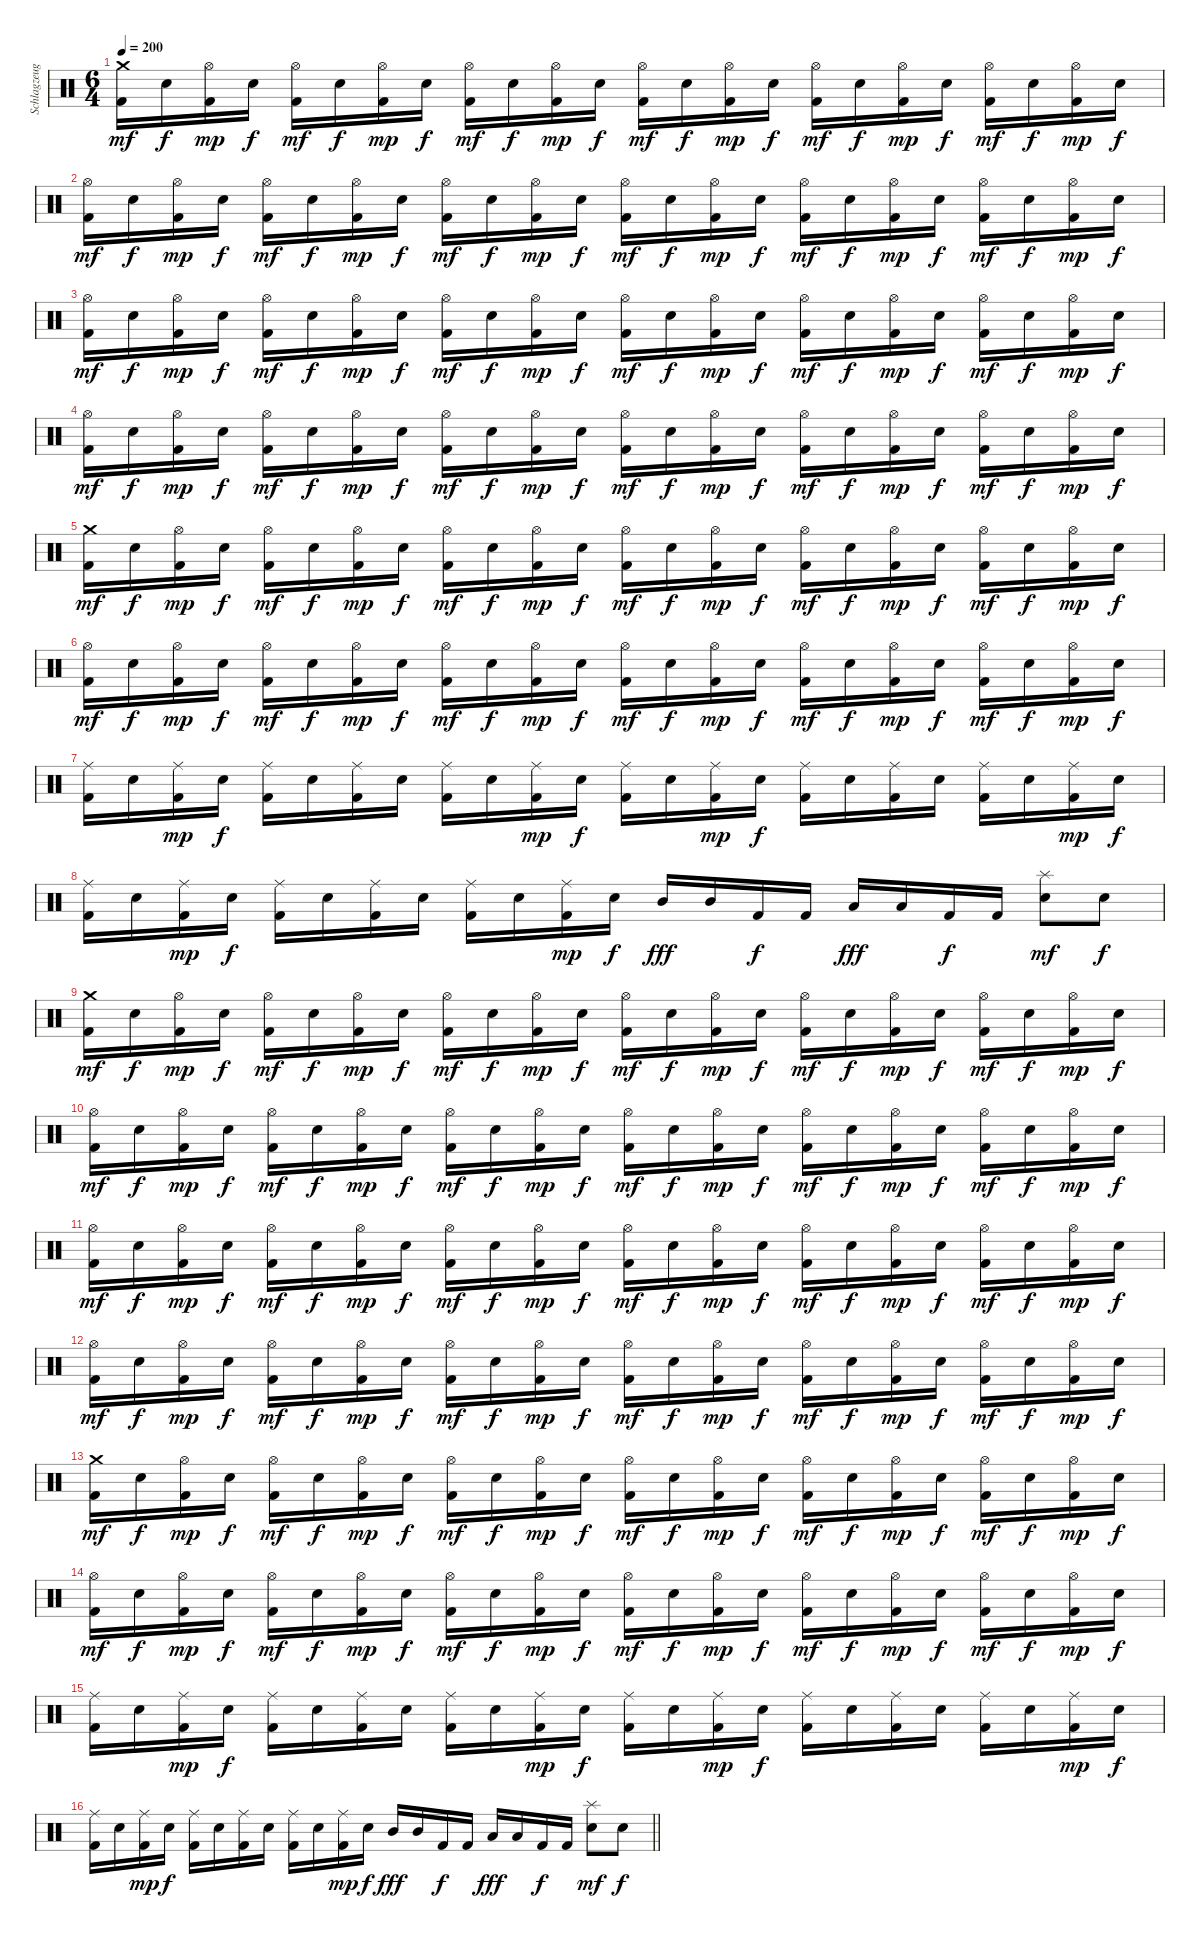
\track ("Schlagzeug" "Schlagzeug") {instrument percussion}
\staff {score}
\articulation defaults
\ts (6 4)
\tempo 200
\clef neutral
\ks c
("Crash medium (hit)" "Kick (hit) 2").16{dy mf} "Electric Snare (hit)".16{dy f} ("Hi-Hat (open)" "Kick (hit) 2").16{dy mp} "Electric Snare (hit)".16{dy f} ("Hi-Hat (open)" "Kick (hit) 2").16{dy mf} "Electric Snare (hit)".16{dy f} ("Hi-Hat (open)" "Kick (hit) 2").16{dy mp} "Electric Snare (hit)".16{dy f} ("Hi-Hat (open)" "Kick (hit) 2").16{dy mf} "Electric Snare (hit)".16{dy f} ("Hi-Hat (open)" "Kick (hit) 2").16{dy mp} "Electric Snare (hit)".16{dy f} ("Hi-Hat (open)" "Kick (hit) 2").16{dy mf} "Electric Snare (hit)".16{dy f} ("Hi-Hat (open)" "Kick (hit) 2").16{dy mp} "Electric Snare (hit)".16{dy f} ("Hi-Hat (open)" "Kick (hit) 2").16{dy mf} "Electric Snare (hit)".16{dy f} ("Hi-Hat (open)" "Kick (hit) 2").16{dy mp} "Electric Snare (hit)".16{dy f} ("Hi-Hat (open)" "Kick (hit) 2").16{dy mf} "Electric Snare (hit)".16{dy f} ("Hi-Hat (open)" "Kick (hit) 2").16{dy mp} "Electric Snare (hit)".16{dy f} |
("Hi-Hat (open)" "Kick (hit) 2").16{dy mf} "Electric Snare (hit)".16{dy f} ("Hi-Hat (open)" "Kick (hit) 2").16{dy mp} "Electric Snare (hit)".16{dy f} ("Hi-Hat (open)" "Kick (hit) 2").16{dy mf} "Electric Snare (hit)".16{dy f} ("Hi-Hat (open)" "Kick (hit) 2").16{dy mp} "Electric Snare (hit)".16{dy f} ("Hi-Hat (open)" "Kick (hit) 2").16{dy mf} "Electric Snare (hit)".16{dy f} ("Hi-Hat (open)" "Kick (hit) 2").16{dy mp} "Electric Snare (hit)".16{dy f} ("Hi-Hat (open)" "Kick (hit) 2").16{dy mf} "Electric Snare (hit)".16{dy f} ("Hi-Hat (open)" "Kick (hit) 2").16{dy mp} "Electric Snare (hit)".16{dy f} ("Hi-Hat (open)" "Kick (hit) 2").16{dy mf} "Electric Snare (hit)".16{dy f} ("Hi-Hat (open)" "Kick (hit) 2").16{dy mp} "Electric Snare (hit)".16{dy f} ("Hi-Hat (open)" "Kick (hit) 2").16{dy mf} "Electric Snare (hit)".16{dy f} ("Hi-Hat (open)" "Kick (hit) 2").16{dy mp} "Electric Snare (hit)".16{dy f} |
("Hi-Hat (open)" "Kick (hit) 2").16{dy mf} "Electric Snare (hit)".16{dy f} ("Hi-Hat (open)" "Kick (hit) 2").16{dy mp} "Electric Snare (hit)".16{dy f} ("Hi-Hat (open)" "Kick (hit) 2").16{dy mf} "Electric Snare (hit)".16{dy f} ("Hi-Hat (open)" "Kick (hit) 2").16{dy mp} "Electric Snare (hit)".16{dy f} ("Hi-Hat (open)" "Kick (hit) 2").16{dy mf} "Electric Snare (hit)".16{dy f} ("Hi-Hat (open)" "Kick (hit) 2").16{dy mp} "Electric Snare (hit)".16{dy f} ("Hi-Hat (open)" "Kick (hit) 2").16{dy mf} "Electric Snare (hit)".16{dy f} ("Hi-Hat (open)" "Kick (hit) 2").16{dy mp} "Electric Snare (hit)".16{dy f} ("Hi-Hat (open)" "Kick (hit) 2").16{dy mf} "Electric Snare (hit)".16{dy f} ("Hi-Hat (open)" "Kick (hit) 2").16{dy mp} "Electric Snare (hit)".16{dy f} ("Hi-Hat (open)" "Kick (hit) 2").16{dy mf} "Electric Snare (hit)".16{dy f} ("Hi-Hat (open)" "Kick (hit) 2").16{dy mp} "Electric Snare (hit)".16{dy f} |
("Hi-Hat (open)" "Kick (hit) 2").16{dy mf} "Electric Snare (hit)".16{dy f} ("Hi-Hat (open)" "Kick (hit) 2").16{dy mp} "Electric Snare (hit)".16{dy f} ("Hi-Hat (open)" "Kick (hit) 2").16{dy mf} "Electric Snare (hit)".16{dy f} ("Hi-Hat (open)" "Kick (hit) 2").16{dy mp} "Electric Snare (hit)".16{dy f} ("Hi-Hat (open)" "Kick (hit) 2").16{dy mf} "Electric Snare (hit)".16{dy f} ("Hi-Hat (open)" "Kick (hit) 2").16{dy mp} "Electric Snare (hit)".16{dy f} ("Hi-Hat (open)" "Kick (hit) 2").16{dy mf} "Electric Snare (hit)".16{dy f} ("Hi-Hat (open)" "Kick (hit) 2").16{dy mp} "Electric Snare (hit)".16{dy f} ("Hi-Hat (open)" "Kick (hit) 2").16{dy mf} "Electric Snare (hit)".16{dy f} ("Hi-Hat (open)" "Kick (hit) 2").16{dy mp} "Electric Snare (hit)".16{dy f} ("Hi-Hat (open)" "Kick (hit) 2").16{dy mf} "Electric Snare (hit)".16{dy f} ("Hi-Hat (open)" "Kick (hit) 2").16{dy mp} "Electric Snare (hit)".16{dy f} |
("Crash medium (hit)" "Kick (hit) 2").16{dy mf} "Electric Snare (hit)".16{dy f} ("Hi-Hat (open)" "Kick (hit) 2").16{dy mp} "Electric Snare (hit)".16{dy f} ("Hi-Hat (open)" "Kick (hit) 2").16{dy mf} "Electric Snare (hit)".16{dy f} ("Hi-Hat (open)" "Kick (hit) 2").16{dy mp} "Electric Snare (hit)".16{dy f} ("Hi-Hat (open)" "Kick (hit) 2").16{dy mf} "Electric Snare (hit)".16{dy f} ("Hi-Hat (open)" "Kick (hit) 2").16{dy mp} "Electric Snare (hit)".16{dy f} ("Hi-Hat (open)" "Kick (hit) 2").16{dy mf} "Electric Snare (hit)".16{dy f} ("Hi-Hat (open)" "Kick (hit) 2").16{dy mp} "Electric Snare (hit)".16{dy f} ("Hi-Hat (open)" "Kick (hit) 2").16{dy mf} "Electric Snare (hit)".16{dy f} ("Hi-Hat (open)" "Kick (hit) 2").16{dy mp} "Electric Snare (hit)".16{dy f} ("Hi-Hat (open)" "Kick (hit) 2").16{dy mf} "Electric Snare (hit)".16{dy f} ("Hi-Hat (open)" "Kick (hit) 2").16{dy mp} "Electric Snare (hit)".16{dy f} |
("Hi-Hat (open)" "Kick (hit) 2").16{dy mf} "Electric Snare (hit)".16{dy f} ("Hi-Hat (open)" "Kick (hit) 2").16{dy mp} "Electric Snare (hit)".16{dy f} ("Hi-Hat (open)" "Kick (hit) 2").16{dy mf} "Electric Snare (hit)".16{dy f} ("Hi-Hat (open)" "Kick (hit) 2").16{dy mp} "Electric Snare (hit)".16{dy f} ("Hi-Hat (open)" "Kick (hit) 2").16{dy mf} "Electric Snare (hit)".16{dy f} ("Hi-Hat (open)" "Kick (hit) 2").16{dy mp} "Electric Snare (hit)".16{dy f} ("Hi-Hat (open)" "Kick (hit) 2").16{dy mf} "Electric Snare (hit)".16{dy f} ("Hi-Hat (open)" "Kick (hit) 2").16{dy mp} "Electric Snare (hit)".16{dy f} ("Hi-Hat (open)" "Kick (hit) 2").16{dy mf} "Electric Snare (hit)".16{dy f} ("Hi-Hat (open)" "Kick (hit) 2").16{dy mp} "Electric Snare (hit)".16{dy f} ("Hi-Hat (open)" "Kick (hit) 2").16{dy mf} "Electric Snare (hit)".16{dy f} ("Hi-Hat (open)" "Kick (hit) 2").16{dy mp} "Electric Snare (hit)".16{dy f} |
("Ride (middle)" "Kick (hit) 2").16 "Electric Snare (hit)".16 ("Ride (middle)" "Kick (hit) 2").16{dy mp} "Electric Snare (hit)".16{dy f} ("Ride (middle)" "Kick (hit) 2").16 "Electric Snare (hit)".16 ("Ride (middle)" "Kick (hit) 2").16 "Electric Snare (hit)".16 ("Ride (middle)" "Kick (hit) 2").16 "Electric Snare (hit)".16 ("Ride (middle)" "Kick (hit) 2").16{dy mp} "Electric Snare (hit)".16{dy f} ("Ride (middle)" "Kick (hit) 2").16 "Electric Snare (hit)".16 ("Ride (middle)" "Kick (hit) 2").16{dy mp} "Electric Snare (hit)".16{dy f} ("Ride (middle)" "Kick (hit) 2").16 "Electric Snare (hit)".16 ("Ride (middle)" "Kick (hit) 2").16 "Electric Snare (hit)".16 ("Ride (middle)" "Kick (hit) 2").16 "Electric Snare (hit)".16 ("Ride (middle)" "Kick (hit) 2").16{dy mp} "Electric Snare (hit)".16{dy f} |
("Ride (middle)" "Kick (hit) 2").16 "Electric Snare (hit)".16 ("Ride (middle)" "Kick (hit) 2").16{dy mp} "Electric Snare (hit)".16{dy f} ("Ride (middle)" "Kick (hit) 2").16 "Electric Snare (hit)".16 ("Ride (middle)" "Kick (hit) 2").16 "Electric Snare (hit)".16 ("Ride (middle)" "Kick (hit) 2").16 "Electric Snare (hit)".16 ("Ride (middle)" "Kick (hit) 2").16{dy mp} "Electric Snare (hit)".16{dy f} "Mid Tom (hit)".16{dy fff} "Mid Tom (hit)".16 "Kick (hit) 2".16{dy f} "Kick (hit) 2".16 "Low Tom (hit)".16{dy fff} "Low Tom (hit)".16 "Kick (hit) 2".16{dy f} "Kick (hit) 2".16 ("Splash (hit)" "Electric Snare (hit)").8{dy mf} "Electric Snare (hit)".8{dy f} |
("Crash medium (hit)" "Kick (hit) 2").16{dy mf} "Electric Snare (hit)".16{dy f} ("Hi-Hat (open)" "Kick (hit) 2").16{dy mp} "Electric Snare (hit)".16{dy f} ("Hi-Hat (open)" "Kick (hit) 2").16{dy mf} "Electric Snare (hit)".16{dy f} ("Hi-Hat (open)" "Kick (hit) 2").16{dy mp} "Electric Snare (hit)".16{dy f} ("Hi-Hat (open)" "Kick (hit) 2").16{dy mf} "Electric Snare (hit)".16{dy f} ("Hi-Hat (open)" "Kick (hit) 2").16{dy mp} "Electric Snare (hit)".16{dy f} ("Hi-Hat (open)" "Kick (hit) 2").16{dy mf} "Electric Snare (hit)".16{dy f} ("Hi-Hat (open)" "Kick (hit) 2").16{dy mp} "Electric Snare (hit)".16{dy f} ("Hi-Hat (open)" "Kick (hit) 2").16{dy mf} "Electric Snare (hit)".16{dy f} ("Hi-Hat (open)" "Kick (hit) 2").16{dy mp} "Electric Snare (hit)".16{dy f} ("Hi-Hat (open)" "Kick (hit) 2").16{dy mf} "Electric Snare (hit)".16{dy f} ("Hi-Hat (open)" "Kick (hit) 2").16{dy mp} "Electric Snare (hit)".16{dy f} |
("Hi-Hat (open)" "Kick (hit) 2").16{dy mf} "Electric Snare (hit)".16{dy f} ("Hi-Hat (open)" "Kick (hit) 2").16{dy mp} "Electric Snare (hit)".16{dy f} ("Hi-Hat (open)" "Kick (hit) 2").16{dy mf} "Electric Snare (hit)".16{dy f} ("Hi-Hat (open)" "Kick (hit) 2").16{dy mp} "Electric Snare (hit)".16{dy f} ("Hi-Hat (open)" "Kick (hit) 2").16{dy mf} "Electric Snare (hit)".16{dy f} ("Hi-Hat (open)" "Kick (hit) 2").16{dy mp} "Electric Snare (hit)".16{dy f} ("Hi-Hat (open)" "Kick (hit) 2").16{dy mf} "Electric Snare (hit)".16{dy f} ("Hi-Hat (open)" "Kick (hit) 2").16{dy mp} "Electric Snare (hit)".16{dy f} ("Hi-Hat (open)" "Kick (hit) 2").16{dy mf} "Electric Snare (hit)".16{dy f} ("Hi-Hat (open)" "Kick (hit) 2").16{dy mp} "Electric Snare (hit)".16{dy f} ("Hi-Hat (open)" "Kick (hit) 2").16{dy mf} "Electric Snare (hit)".16{dy f} ("Hi-Hat (open)" "Kick (hit) 2").16{dy mp} "Electric Snare (hit)".16{dy f} |
("Hi-Hat (open)" "Kick (hit) 2").16{dy mf} "Electric Snare (hit)".16{dy f} ("Hi-Hat (open)" "Kick (hit) 2").16{dy mp} "Electric Snare (hit)".16{dy f} ("Hi-Hat (open)" "Kick (hit) 2").16{dy mf} "Electric Snare (hit)".16{dy f} ("Hi-Hat (open)" "Kick (hit) 2").16{dy mp} "Electric Snare (hit)".16{dy f} ("Hi-Hat (open)" "Kick (hit) 2").16{dy mf} "Electric Snare (hit)".16{dy f} ("Hi-Hat (open)" "Kick (hit) 2").16{dy mp} "Electric Snare (hit)".16{dy f} ("Hi-Hat (open)" "Kick (hit) 2").16{dy mf} "Electric Snare (hit)".16{dy f} ("Hi-Hat (open)" "Kick (hit) 2").16{dy mp} "Electric Snare (hit)".16{dy f} ("Hi-Hat (open)" "Kick (hit) 2").16{dy mf} "Electric Snare (hit)".16{dy f} ("Hi-Hat (open)" "Kick (hit) 2").16{dy mp} "Electric Snare (hit)".16{dy f} ("Hi-Hat (open)" "Kick (hit) 2").16{dy mf} "Electric Snare (hit)".16{dy f} ("Hi-Hat (open)" "Kick (hit) 2").16{dy mp} "Electric Snare (hit)".16{dy f} |
("Hi-Hat (open)" "Kick (hit) 2").16{dy mf} "Electric Snare (hit)".16{dy f} ("Hi-Hat (open)" "Kick (hit) 2").16{dy mp} "Electric Snare (hit)".16{dy f} ("Hi-Hat (open)" "Kick (hit) 2").16{dy mf} "Electric Snare (hit)".16{dy f} ("Hi-Hat (open)" "Kick (hit) 2").16{dy mp} "Electric Snare (hit)".16{dy f} ("Hi-Hat (open)" "Kick (hit) 2").16{dy mf} "Electric Snare (hit)".16{dy f} ("Hi-Hat (open)" "Kick (hit) 2").16{dy mp} "Electric Snare (hit)".16{dy f} ("Hi-Hat (open)" "Kick (hit) 2").16{dy mf} "Electric Snare (hit)".16{dy f} ("Hi-Hat (open)" "Kick (hit) 2").16{dy mp} "Electric Snare (hit)".16{dy f} ("Hi-Hat (open)" "Kick (hit) 2").16{dy mf} "Electric Snare (hit)".16{dy f} ("Hi-Hat (open)" "Kick (hit) 2").16{dy mp} "Electric Snare (hit)".16{dy f} ("Hi-Hat (open)" "Kick (hit) 2").16{dy mf} "Electric Snare (hit)".16{dy f} ("Hi-Hat (open)" "Kick (hit) 2").16{dy mp} "Electric Snare (hit)".16{dy f} |
("Crash medium (hit)" "Kick (hit) 2").16{dy mf} "Electric Snare (hit)".16{dy f} ("Hi-Hat (open)" "Kick (hit) 2").16{dy mp} "Electric Snare (hit)".16{dy f} ("Hi-Hat (open)" "Kick (hit) 2").16{dy mf} "Electric Snare (hit)".16{dy f} ("Hi-Hat (open)" "Kick (hit) 2").16{dy mp} "Electric Snare (hit)".16{dy f} ("Hi-Hat (open)" "Kick (hit) 2").16{dy mf} "Electric Snare (hit)".16{dy f} ("Hi-Hat (open)" "Kick (hit) 2").16{dy mp} "Electric Snare (hit)".16{dy f} ("Hi-Hat (open)" "Kick (hit) 2").16{dy mf} "Electric Snare (hit)".16{dy f} ("Hi-Hat (open)" "Kick (hit) 2").16{dy mp} "Electric Snare (hit)".16{dy f} ("Hi-Hat (open)" "Kick (hit) 2").16{dy mf} "Electric Snare (hit)".16{dy f} ("Hi-Hat (open)" "Kick (hit) 2").16{dy mp} "Electric Snare (hit)".16{dy f} ("Hi-Hat (open)" "Kick (hit) 2").16{dy mf} "Electric Snare (hit)".16{dy f} ("Hi-Hat (open)" "Kick (hit) 2").16{dy mp} "Electric Snare (hit)".16{dy f} |
("Hi-Hat (open)" "Kick (hit) 2").16{dy mf} "Electric Snare (hit)".16{dy f} ("Hi-Hat (open)" "Kick (hit) 2").16{dy mp} "Electric Snare (hit)".16{dy f} ("Hi-Hat (open)" "Kick (hit) 2").16{dy mf} "Electric Snare (hit)".16{dy f} ("Hi-Hat (open)" "Kick (hit) 2").16{dy mp} "Electric Snare (hit)".16{dy f} ("Hi-Hat (open)" "Kick (hit) 2").16{dy mf} "Electric Snare (hit)".16{dy f} ("Hi-Hat (open)" "Kick (hit) 2").16{dy mp} "Electric Snare (hit)".16{dy f} ("Hi-Hat (open)" "Kick (hit) 2").16{dy mf} "Electric Snare (hit)".16{dy f} ("Hi-Hat (open)" "Kick (hit) 2").16{dy mp} "Electric Snare (hit)".16{dy f} ("Hi-Hat (open)" "Kick (hit) 2").16{dy mf} "Electric Snare (hit)".16{dy f} ("Hi-Hat (open)" "Kick (hit) 2").16{dy mp} "Electric Snare (hit)".16{dy f} ("Hi-Hat (open)" "Kick (hit) 2").16{dy mf} "Electric Snare (hit)".16{dy f} ("Hi-Hat (open)" "Kick (hit) 2").16{dy mp} "Electric Snare (hit)".16{dy f} |
("Ride (middle)" "Kick (hit) 2").16 "Electric Snare (hit)".16 ("Ride (middle)" "Kick (hit) 2").16{dy mp} "Electric Snare (hit)".16{dy f} ("Ride (middle)" "Kick (hit) 2").16 "Electric Snare (hit)".16 ("Ride (middle)" "Kick (hit) 2").16 "Electric Snare (hit)".16 ("Ride (middle)" "Kick (hit) 2").16 "Electric Snare (hit)".16 ("Ride (middle)" "Kick (hit) 2").16{dy mp} "Electric Snare (hit)".16{dy f} ("Ride (middle)" "Kick (hit) 2").16 "Electric Snare (hit)".16 ("Ride (middle)" "Kick (hit) 2").16{dy mp} "Electric Snare (hit)".16{dy f} ("Ride (middle)" "Kick (hit) 2").16 "Electric Snare (hit)".16 ("Ride (middle)" "Kick (hit) 2").16 "Electric Snare (hit)".16 ("Ride (middle)" "Kick (hit) 2").16 "Electric Snare (hit)".16 ("Ride (middle)" "Kick (hit) 2").16{dy mp} "Electric Snare (hit)".16{dy f} |
\barLineRight lightlight
("Ride (middle)" "Kick (hit) 2").16 "Electric Snare (hit)".16 ("Ride (middle)" "Kick (hit) 2").16{dy mp} "Electric Snare (hit)".16{dy f} ("Ride (middle)" "Kick (hit) 2").16 "Electric Snare (hit)".16 ("Ride (middle)" "Kick (hit) 2").16 "Electric Snare (hit)".16 ("Ride (middle)" "Kick (hit) 2").16 "Electric Snare (hit)".16 ("Ride (middle)" "Kick (hit) 2").16{dy mp} "Electric Snare (hit)".16{dy f} "Mid Tom (hit)".16{dy fff} "Mid Tom (hit)".16 "Kick (hit) 2".16{dy f} "Kick (hit) 2".16 "Low Tom (hit)".16{dy fff} "Low Tom (hit)".16 "Kick (hit) 2".16{dy f} "Kick (hit) 2".16 ("Splash (hit)" "Electric Snare (hit)").8{dy mf} "Electric Snare (hit)".8{dy f}
